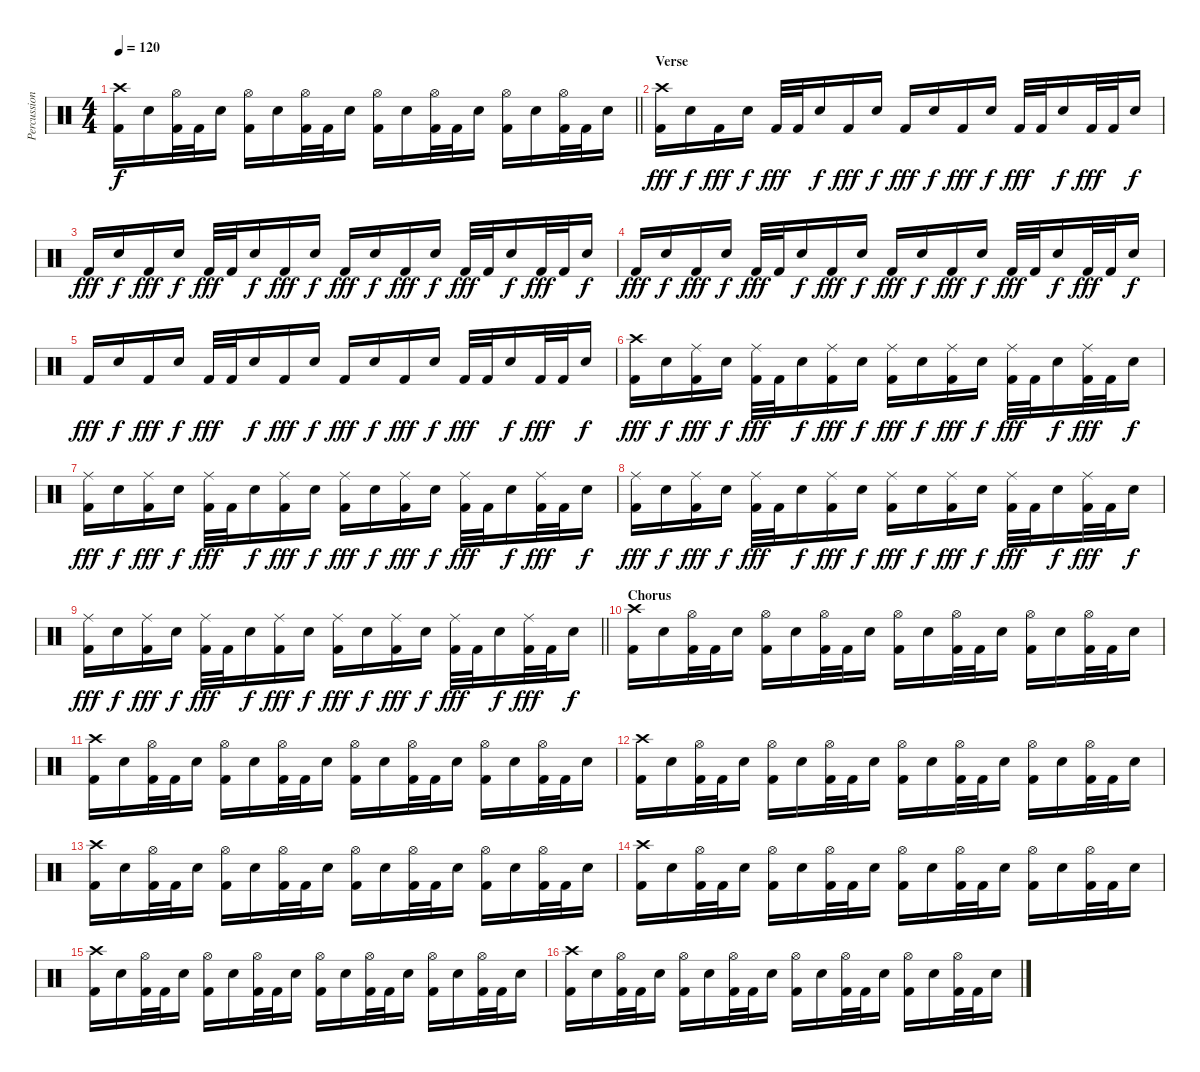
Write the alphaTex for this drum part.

\track ("Percussion" "Percussion") {instrument percussion}
\staff {score}
\articulation defaults
\ts (4 4)
\tempo 120
\clef neutral
\barLineRight lightlight
\ks c
("Crash high (hit)" "Kick (hit) 2").16{dy f} "Snare (hit) 2".16 ("Hi-Hat (open)" "Kick (hit) 2").32 "Kick (hit) 2".32 "Snare (hit) 2".16 ("Hi-Hat (open)" "Kick (hit) 2").16 "Snare (hit) 2".16 ("Hi-Hat (open)" "Kick (hit) 2").32 "Kick (hit) 2".32 "Snare (hit) 2".16 ("Hi-Hat (open)" "Kick (hit) 2").16 "Snare (hit) 2".16 ("Hi-Hat (open)" "Kick (hit) 2").32 "Kick (hit) 2".32 "Snare (hit) 2".16 ("Hi-Hat (open)" "Kick (hit) 2").16 "Snare (hit) 2".16 ("Hi-Hat (open)" "Kick (hit) 2").32 "Kick (hit) 2".32 "Snare (hit) 2".16 |
\section ("" "Verse")
("Crash high (hit)" "Kick (hit) 2").16{dy fff} "Snare (hit) 2".16{dy f} "Kick (hit) 2".16{dy fff} "Snare (hit) 2".16{dy f} "Kick (hit) 2".32{dy fff} "Kick (hit) 2".32 "Snare (hit) 2".16{dy f} "Kick (hit) 2".16{dy fff} "Snare (hit) 2".16{dy f} "Kick (hit) 2".16{dy fff} "Snare (hit) 2".16{dy f} "Kick (hit) 2".16{dy fff} "Snare (hit) 2".16{dy f} "Kick (hit) 2".32{dy fff} "Kick (hit) 2".32 "Snare (hit) 2".16{dy f} "Kick (hit) 2".32{dy fff} "Kick (hit) 2".32 "Snare (hit) 2".16{dy f} |
"Kick (hit) 2".16{dy fff} "Snare (hit) 2".16{dy f} "Kick (hit) 2".16{dy fff} "Snare (hit) 2".16{dy f} "Kick (hit) 2".32{dy fff} "Kick (hit) 2".32 "Snare (hit) 2".16{dy f} "Kick (hit) 2".16{dy fff} "Snare (hit) 2".16{dy f} "Kick (hit) 2".16{dy fff} "Snare (hit) 2".16{dy f} "Kick (hit) 2".16{dy fff} "Snare (hit) 2".16{dy f} "Kick (hit) 2".32{dy fff} "Kick (hit) 2".32 "Snare (hit) 2".16{dy f} "Kick (hit) 2".32{dy fff} "Kick (hit) 2".32 "Snare (hit) 2".16{dy f} |
"Kick (hit) 2".16{dy fff} "Snare (hit) 2".16{dy f} "Kick (hit) 2".16{dy fff} "Snare (hit) 2".16{dy f} "Kick (hit) 2".32{dy fff} "Kick (hit) 2".32 "Snare (hit) 2".16{dy f} "Kick (hit) 2".16{dy fff} "Snare (hit) 2".16{dy f} "Kick (hit) 2".16{dy fff} "Snare (hit) 2".16{dy f} "Kick (hit) 2".16{dy fff} "Snare (hit) 2".16{dy f} "Kick (hit) 2".32{dy fff} "Kick (hit) 2".32 "Snare (hit) 2".16{dy f} "Kick (hit) 2".32{dy fff} "Kick (hit) 2".32 "Snare (hit) 2".16{dy f} |
"Kick (hit) 2".16{dy fff} "Snare (hit) 2".16{dy f} "Kick (hit) 2".16{dy fff} "Snare (hit) 2".16{dy f} "Kick (hit) 2".32{dy fff} "Kick (hit) 2".32 "Snare (hit) 2".16{dy f} "Kick (hit) 2".16{dy fff} "Snare (hit) 2".16{dy f} "Kick (hit) 2".16{dy fff} "Snare (hit) 2".16{dy f} "Kick (hit) 2".16{dy fff} "Snare (hit) 2".16{dy f} "Kick (hit) 2".32{dy fff} "Kick (hit) 2".32 "Snare (hit) 2".16{dy f} "Kick (hit) 2".32{dy fff} "Kick (hit) 2".32 "Snare (hit) 2".16{dy f} |
("Crash high (hit)" "Kick (hit) 2").16{dy fff} "Snare (hit) 2".16{dy f} ("Ride (middle)" "Kick (hit) 2").16{dy fff} "Snare (hit) 2".16{dy f} ("Ride (middle)" "Kick (hit) 2").32{dy fff} "Kick (hit) 2".32 "Snare (hit) 2".16{dy f} ("Ride (middle)" "Kick (hit) 2").16{dy fff} "Snare (hit) 2".16{dy f} ("Ride (middle)" "Kick (hit) 2").16{dy fff} "Snare (hit) 2".16{dy f} ("Ride (middle)" "Kick (hit) 2").16{dy fff} "Snare (hit) 2".16{dy f} ("Ride (middle)" "Kick (hit) 2").32{dy fff} "Kick (hit) 2".32 "Snare (hit) 2".16{dy f} ("Ride (middle)" "Kick (hit) 2").32{dy fff} "Kick (hit) 2".32 "Snare (hit) 2".16{dy f} |
("Ride (middle)" "Kick (hit) 2").16{dy fff} "Snare (hit) 2".16{dy f} ("Ride (middle)" "Kick (hit) 2").16{dy fff} "Snare (hit) 2".16{dy f} ("Ride (middle)" "Kick (hit) 2").32{dy fff} "Kick (hit) 2".32 "Snare (hit) 2".16{dy f} ("Ride (middle)" "Kick (hit) 2").16{dy fff} "Snare (hit) 2".16{dy f} ("Ride (middle)" "Kick (hit) 2").16{dy fff} "Snare (hit) 2".16{dy f} ("Ride (middle)" "Kick (hit) 2").16{dy fff} "Snare (hit) 2".16{dy f} ("Ride (middle)" "Kick (hit) 2").32{dy fff} "Kick (hit) 2".32 "Snare (hit) 2".16{dy f} ("Ride (middle)" "Kick (hit) 2").32{dy fff} "Kick (hit) 2".32 "Snare (hit) 2".16{dy f} |
("Ride (middle)" "Kick (hit) 2").16{dy fff} "Snare (hit) 2".16{dy f} ("Ride (middle)" "Kick (hit) 2").16{dy fff} "Snare (hit) 2".16{dy f} ("Ride (middle)" "Kick (hit) 2").32{dy fff} "Kick (hit) 2".32 "Snare (hit) 2".16{dy f} ("Ride (middle)" "Kick (hit) 2").16{dy fff} "Snare (hit) 2".16{dy f} ("Ride (middle)" "Kick (hit) 2").16{dy fff} "Snare (hit) 2".16{dy f} ("Ride (middle)" "Kick (hit) 2").16{dy fff} "Snare (hit) 2".16{dy f} ("Ride (middle)" "Kick (hit) 2").32{dy fff} "Kick (hit) 2".32 "Snare (hit) 2".16{dy f} ("Ride (middle)" "Kick (hit) 2").32{dy fff} "Kick (hit) 2".32 "Snare (hit) 2".16{dy f} |
\barLineRight lightlight
("Ride (middle)" "Kick (hit) 2").16{dy fff} "Snare (hit) 2".16{dy f} ("Ride (middle)" "Kick (hit) 2").16{dy fff} "Snare (hit) 2".16{dy f} ("Ride (middle)" "Kick (hit) 2").32{dy fff} "Kick (hit) 2".32 "Snare (hit) 2".16{dy f} ("Ride (middle)" "Kick (hit) 2").16{dy fff} "Snare (hit) 2".16{dy f} ("Ride (middle)" "Kick (hit) 2").16{dy fff} "Snare (hit) 2".16{dy f} ("Ride (middle)" "Kick (hit) 2").16{dy fff} "Snare (hit) 2".16{dy f} ("Ride (middle)" "Kick (hit) 2").32{dy fff} "Kick (hit) 2".32 "Snare (hit) 2".16{dy f} ("Ride (middle)" "Kick (hit) 2").32{dy fff} "Kick (hit) 2".32 "Snare (hit) 2".16{dy f} |
\section ("" "Chorus")
("Crash high (hit)" "Kick (hit) 2").16 "Snare (hit) 2".16 ("Hi-Hat (open)" "Kick (hit) 2").32 "Kick (hit) 2".32 "Snare (hit) 2".16 ("Hi-Hat (open)" "Kick (hit) 2").16 "Snare (hit) 2".16 ("Hi-Hat (open)" "Kick (hit) 2").32 "Kick (hit) 2".32 "Snare (hit) 2".16 ("Hi-Hat (open)" "Kick (hit) 2").16 "Snare (hit) 2".16 ("Hi-Hat (open)" "Kick (hit) 2").32 "Kick (hit) 2".32 "Snare (hit) 2".16 ("Hi-Hat (open)" "Kick (hit) 2").16 "Snare (hit) 2".16 ("Hi-Hat (open)" "Kick (hit) 2").32 "Kick (hit) 2".32 "Snare (hit) 2".16 |
("Crash high (hit)" "Kick (hit) 2").16 "Snare (hit) 2".16 ("Hi-Hat (open)" "Kick (hit) 2").32 "Kick (hit) 2".32 "Snare (hit) 2".16 ("Hi-Hat (open)" "Kick (hit) 2").16 "Snare (hit) 2".16 ("Hi-Hat (open)" "Kick (hit) 2").32 "Kick (hit) 2".32 "Snare (hit) 2".16 ("Hi-Hat (open)" "Kick (hit) 2").16 "Snare (hit) 2".16 ("Hi-Hat (open)" "Kick (hit) 2").32 "Kick (hit) 2".32 "Snare (hit) 2".16 ("Hi-Hat (open)" "Kick (hit) 2").16 "Snare (hit) 2".16 ("Hi-Hat (open)" "Kick (hit) 2").32 "Kick (hit) 2".32 "Snare (hit) 2".16 |
("Crash high (hit)" "Kick (hit) 2").16 "Snare (hit) 2".16 ("Hi-Hat (open)" "Kick (hit) 2").32 "Kick (hit) 2".32 "Snare (hit) 2".16 ("Hi-Hat (open)" "Kick (hit) 2").16 "Snare (hit) 2".16 ("Hi-Hat (open)" "Kick (hit) 2").32 "Kick (hit) 2".32 "Snare (hit) 2".16 ("Hi-Hat (open)" "Kick (hit) 2").16 "Snare (hit) 2".16 ("Hi-Hat (open)" "Kick (hit) 2").32 "Kick (hit) 2".32 "Snare (hit) 2".16 ("Hi-Hat (open)" "Kick (hit) 2").16 "Snare (hit) 2".16 ("Hi-Hat (open)" "Kick (hit) 2").32 "Kick (hit) 2".32 "Snare (hit) 2".16 |
("Crash high (hit)" "Kick (hit) 2").16 "Snare (hit) 2".16 ("Hi-Hat (open)" "Kick (hit) 2").32 "Kick (hit) 2".32 "Snare (hit) 2".16 ("Hi-Hat (open)" "Kick (hit) 2").16 "Snare (hit) 2".16 ("Hi-Hat (open)" "Kick (hit) 2").32 "Kick (hit) 2".32 "Snare (hit) 2".16 ("Hi-Hat (open)" "Kick (hit) 2").16 "Snare (hit) 2".16 ("Hi-Hat (open)" "Kick (hit) 2").32 "Kick (hit) 2".32 "Snare (hit) 2".16 ("Hi-Hat (open)" "Kick (hit) 2").16 "Snare (hit) 2".16 ("Hi-Hat (open)" "Kick (hit) 2").32 "Kick (hit) 2".32 "Snare (hit) 2".16 |
("Crash high (hit)" "Kick (hit) 2").16 "Snare (hit) 2".16 ("Hi-Hat (open)" "Kick (hit) 2").32 "Kick (hit) 2".32 "Snare (hit) 2".16 ("Hi-Hat (open)" "Kick (hit) 2").16 "Snare (hit) 2".16 ("Hi-Hat (open)" "Kick (hit) 2").32 "Kick (hit) 2".32 "Snare (hit) 2".16 ("Hi-Hat (open)" "Kick (hit) 2").16 "Snare (hit) 2".16 ("Hi-Hat (open)" "Kick (hit) 2").32 "Kick (hit) 2".32 "Snare (hit) 2".16 ("Hi-Hat (open)" "Kick (hit) 2").16 "Snare (hit) 2".16 ("Hi-Hat (open)" "Kick (hit) 2").32 "Kick (hit) 2".32 "Snare (hit) 2".16 |
("Crash high (hit)" "Kick (hit) 2").16 "Snare (hit) 2".16 ("Hi-Hat (open)" "Kick (hit) 2").32 "Kick (hit) 2".32 "Snare (hit) 2".16 ("Hi-Hat (open)" "Kick (hit) 2").16 "Snare (hit) 2".16 ("Hi-Hat (open)" "Kick (hit) 2").32 "Kick (hit) 2".32 "Snare (hit) 2".16 ("Hi-Hat (open)" "Kick (hit) 2").16 "Snare (hit) 2".16 ("Hi-Hat (open)" "Kick (hit) 2").32 "Kick (hit) 2".32 "Snare (hit) 2".16 ("Hi-Hat (open)" "Kick (hit) 2").16 "Snare (hit) 2".16 ("Hi-Hat (open)" "Kick (hit) 2").32 "Kick (hit) 2".32 "Snare (hit) 2".16 |
("Crash high (hit)" "Kick (hit) 2").16 "Snare (hit) 2".16 ("Hi-Hat (open)" "Kick (hit) 2").32 "Kick (hit) 2".32 "Snare (hit) 2".16 ("Hi-Hat (open)" "Kick (hit) 2").16 "Snare (hit) 2".16 ("Hi-Hat (open)" "Kick (hit) 2").32 "Kick (hit) 2".32 "Snare (hit) 2".16 ("Hi-Hat (open)" "Kick (hit) 2").16 "Snare (hit) 2".16 ("Hi-Hat (open)" "Kick (hit) 2").32 "Kick (hit) 2".32 "Snare (hit) 2".16 ("Hi-Hat (open)" "Kick (hit) 2").16 "Snare (hit) 2".16 ("Hi-Hat (open)" "Kick (hit) 2").32 "Kick (hit) 2".32 "Snare (hit) 2".16
